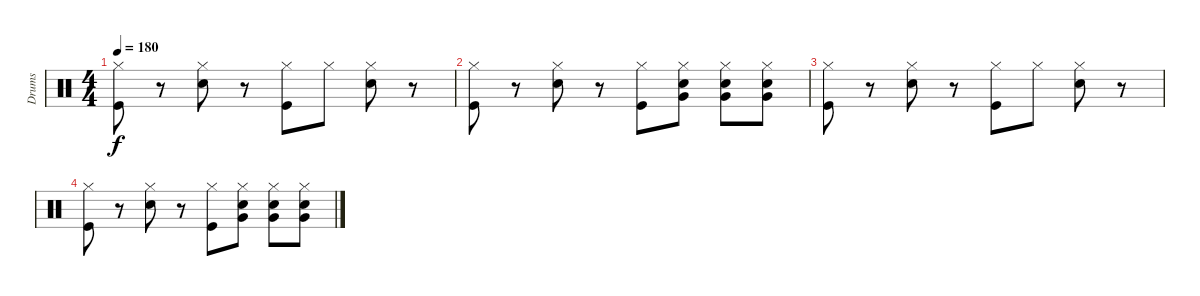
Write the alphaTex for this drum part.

\track ("Drums" "Drums") {instrument percussion}
\staff {score}
\articulation defaults
\ts (4 4)
\tempo 180
\clef neutral
\ks c
("Hi-Hat (closed)" "Kick (hit)").8{dy f} r.8 ("Hi-Hat (closed)" "Snare (hit) 2").8 r.8 ("Hi-Hat (closed)" "Kick (hit)").8 "Hi-Hat (closed)".8 ("Hi-Hat (closed)" "Snare (hit) 2").8 r.8 |
("Hi-Hat (closed)" "Kick (hit)").8 r.8 ("Hi-Hat (closed)" "Snare (hit) 2").8 r.8 ("Hi-Hat (closed)" "Kick (hit)").8 ("Hi-Hat (closed)" "Snare (hit) 2" "Very Low Tom (hit)").8 ("Hi-Hat (closed)" "Snare (hit) 2" "Very Low Tom (hit)").8 ("Hi-Hat (closed)" "Snare (hit) 2" "Very Low Tom (hit)").8 |
("Hi-Hat (closed)" "Kick (hit)").8 r.8 ("Hi-Hat (closed)" "Snare (hit) 2").8 r.8 ("Hi-Hat (closed)" "Kick (hit)").8 "Hi-Hat (closed)".8 ("Hi-Hat (closed)" "Snare (hit) 2").8 r.8 |
("Hi-Hat (closed)" "Kick (hit)").8 r.8 ("Hi-Hat (closed)" "Snare (hit) 2").8 r.8 ("Hi-Hat (closed)" "Kick (hit)").8 ("Hi-Hat (closed)" "Snare (hit) 2" "Very Low Tom (hit)").8 ("Hi-Hat (closed)" "Snare (hit) 2" "Very Low Tom (hit)").8 ("Hi-Hat (closed)" "Snare (hit) 2" "Very Low Tom (hit)").8
